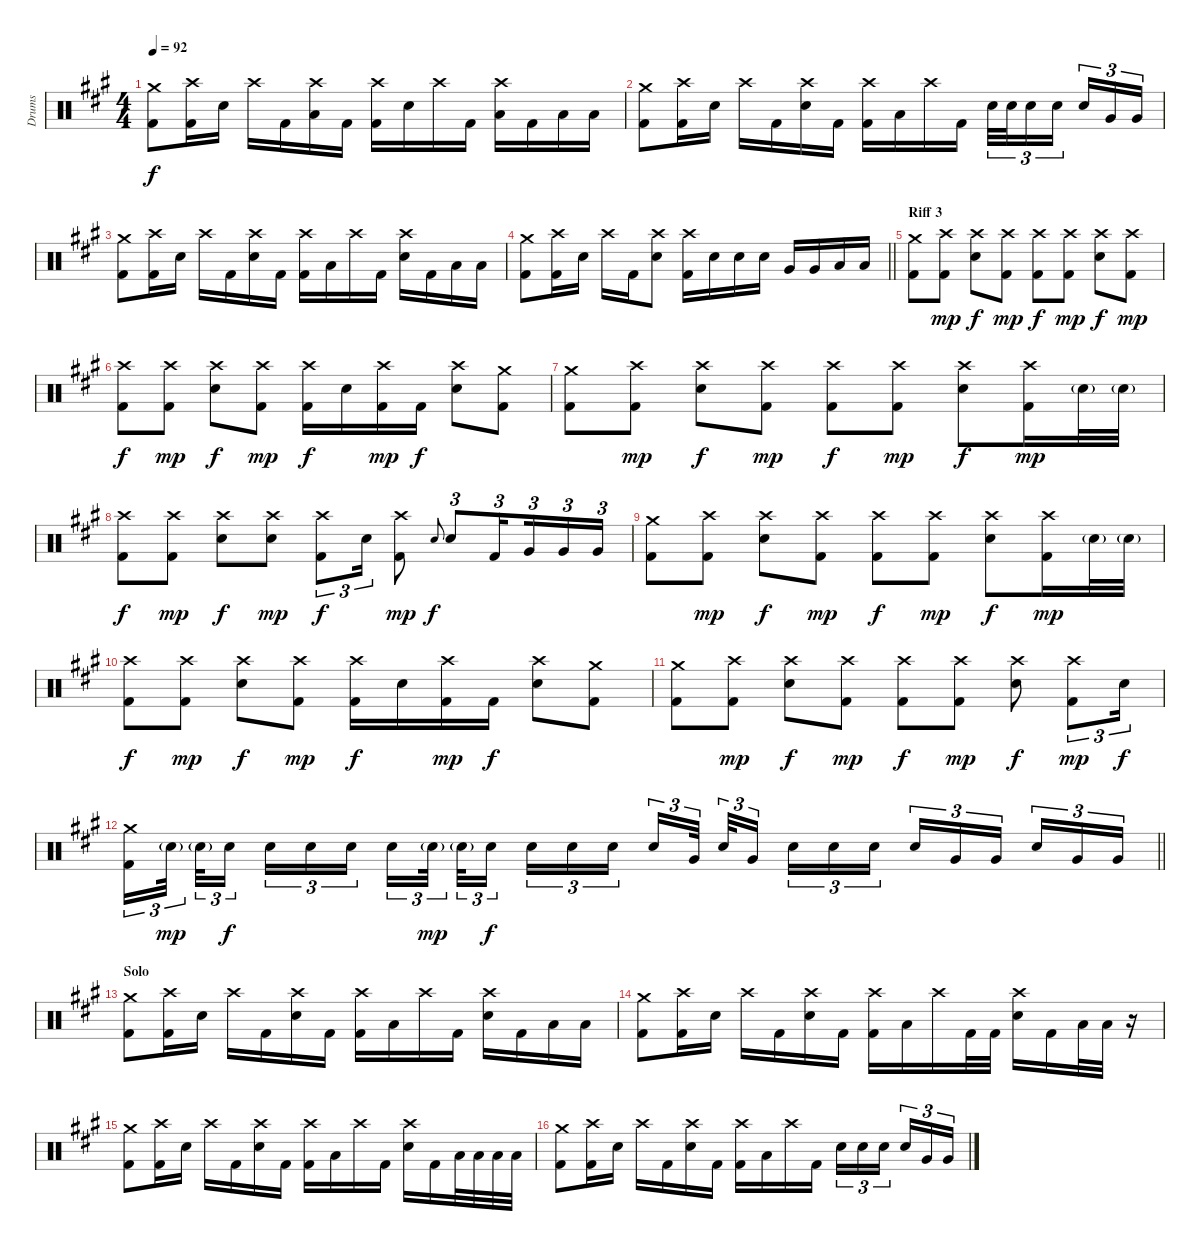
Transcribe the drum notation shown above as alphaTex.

\track ("Drums" "Drums") {instrument percussion}
\staff {score}
\articulation defaults
\ts (4 4)
\tempo 92
\clef neutral
\ks a
("Crash medium (hit)" "Kick (hit) 2").8{dy f} ("Kick (hit) 2" "Crash high (hit)").16 "Electric Snare (hit)".16 "Crash high (hit)".16 "Kick (hit) 2".16 ("Low Tom (hit)" "Crash high (hit)").16 "Kick (hit) 2".16 ("Crash high (hit)" "Kick (hit) 2").16 "Electric Snare (hit)".16 "Crash high (hit)".16 "Kick (hit) 2".16 ("Low Tom (hit)" "Crash high (hit)").16 "Kick (hit) 2".16 "Low Tom (hit)".16 "Low Floor Tom (hit)".16 |
("Crash medium (hit)" "Kick (hit) 2").8 ("Kick (hit) 2" "Crash high (hit)").16 "Electric Snare (hit)".16 "Crash high (hit)".16 "Kick (hit) 2".16 ("Electric Snare (hit)" "Crash high (hit)").16 "Kick (hit) 2".16 ("Crash high (hit)" "Kick (hit) 2").16 "Low Tom (hit)".16 "Crash high (hit)".16 "Kick (hit) 2".16 "Electric Snare (hit)".32{tu (3 2)} "Electric Snare (hit)".32{tu (3 2)} "Electric Snare (hit)".16{tu (3 2)} "Electric Snare (hit)".16{tu (3 2) beam splitsecondary} "Electric Snare (hit)".16{tu (3 2)} "Very Low Tom (hit)".16{tu (3 2)} "Very Low Tom (hit)".16{tu (3 2)} |
("Crash medium (hit)" "Kick (hit) 2").8 ("Kick (hit) 2" "Crash high (hit)").16 "Electric Snare (hit)".16 "Crash high (hit)".16 "Kick (hit) 2".16 ("Electric Snare (hit)" "Crash high (hit)").16 "Kick (hit) 2".16 ("Crash high (hit)" "Kick (hit) 2").16 "Low Tom (hit)".16 "Crash high (hit)".16 "Kick (hit) 2".16 ("Electric Snare (hit)" "Crash high (hit)").16 "Kick (hit) 2".16 "Low Floor Tom (hit)".16 "Low Floor Tom (hit)".16 |
\barLineRight lightlight
("Crash medium (hit)" "Kick (hit) 2").8 ("Kick (hit) 2" "Crash high (hit)").16 "Electric Snare (hit)".16 "Crash high (hit)".16 "Kick (hit) 2".16 ("Electric Snare (hit)" "Crash high (hit)").8 ("Kick (hit) 2" "Crash high (hit)").16 "Electric Snare (hit)".16 "Electric Snare (hit)".16 "Electric Snare (hit)".16 "Very Low Tom (hit)".16 "Very Low Tom (hit)".16 "Low Floor Tom (hit)".16 "Low Floor Tom (hit)".16 |
\section ("" "Riff 3")
("Crash medium (hit)" "Kick (hit) 2").8 ("Crash high (hit)" "Kick (hit) 2").8{dy mp} ("Crash high (hit)" "Electric Snare (hit)").8{dy f} ("Crash high (hit)" "Kick (hit) 2").8{dy mp} ("Crash high (hit)" "Kick (hit) 2").8{dy f} ("Crash high (hit)" "Kick (hit) 2").8{dy mp} ("Crash high (hit)" "Electric Snare (hit)").8{dy f} ("Crash high (hit)" "Kick (hit) 2").8{dy mp} |
("Crash high (hit)" "Kick (hit) 2").8{dy f} ("Crash high (hit)" "Kick (hit) 2").8{dy mp} ("Crash high (hit)" "Electric Snare (hit)").8{dy f} ("Crash high (hit)" "Kick (hit) 2").8{dy mp} ("Crash high (hit)" "Kick (hit) 2").16{dy f} "Electric Snare (hit)".16 ("Kick (hit) 2" "Crash high (hit)").16{dy mp} "Kick (hit) 2".16{dy f} ("Electric Snare (hit)" "Crash high (hit)").8 ("Kick (hit) 2" "Crash medium (hit)").8 |
("Crash medium (hit)" "Kick (hit) 2").8 ("Crash high (hit)" "Kick (hit) 2").8{dy mp} ("Crash high (hit)" "Electric Snare (hit)").8{dy f} ("Crash high (hit)" "Kick (hit) 2").8{dy mp} ("Crash high (hit)" "Kick (hit) 2").8{dy f} ("Crash high (hit)" "Kick (hit) 2").8{dy mp} ("Crash high (hit)" "Electric Snare (hit)").8{dy f} ("Crash high (hit)" "Kick (hit) 2").16{dy mp} "Electric Snare (hit)"{g}.32 "Electric Snare (hit)"{g}.32 |
("Crash high (hit)" "Kick (hit) 2").8{dy f} ("Crash high (hit)" "Kick (hit) 2").8{dy mp} ("Crash high (hit)" "Electric Snare (hit)").8{dy f} ("Electric Snare (hit)" "Crash high (hit)").8{dy mp} ("Kick (hit) 2" "Crash high (hit)").8{tu (3 2) dy f} "Electric Snare (hit)".16{tu (3 2)} ("Kick (hit) 2" "Crash high (hit)").8{dy mp} "Electric Snare (hit)".8{gr onbeat dy f} "Electric Snare (hit)".8{tu (3 2)} "Kick (hit) 2".16{tu (3 2) beam splitsecondary} "Very Low Tom (hit)".16{tu (3 2)} "Very Low Tom (hit)".16{tu (3 2)} "Very Low Tom (hit)".16{tu (3 2)} |
("Crash medium (hit)" "Kick (hit) 2").8 ("Crash high (hit)" "Kick (hit) 2").8{dy mp} ("Crash high (hit)" "Electric Snare (hit)").8{dy f} ("Crash high (hit)" "Kick (hit) 2").8{dy mp} ("Crash high (hit)" "Kick (hit) 2").8{dy f} ("Crash high (hit)" "Kick (hit) 2").8{dy mp} ("Crash high (hit)" "Electric Snare (hit)").8{dy f} ("Crash high (hit)" "Kick (hit) 2").16{dy mp} "Electric Snare (hit)"{g}.32 "Electric Snare (hit)"{g}.32 |
("Crash high (hit)" "Kick (hit) 2").8{dy f} ("Crash high (hit)" "Kick (hit) 2").8{dy mp} ("Crash high (hit)" "Electric Snare (hit)").8{dy f} ("Crash high (hit)" "Kick (hit) 2").8{dy mp} ("Crash high (hit)" "Kick (hit) 2").16{dy f} "Electric Snare (hit)".16 ("Kick (hit) 2" "Crash high (hit)").16{dy mp} "Kick (hit) 2".16{dy f} ("Electric Snare (hit)" "Crash high (hit)").8 ("Kick (hit) 2" "Crash medium (hit)").8 |
("Crash medium (hit)" "Kick (hit) 2").8 ("Crash high (hit)" "Kick (hit) 2").8{dy mp} ("Crash high (hit)" "Electric Snare (hit)").8{dy f} ("Crash high (hit)" "Kick (hit) 2").8{dy mp} ("Crash high (hit)" "Kick (hit) 2").8{dy f} ("Crash high (hit)" "Kick (hit) 2").8{dy mp} ("Crash high (hit)" "Electric Snare (hit)").8{dy f} ("Crash high (hit)" "Kick (hit) 2").8{tu (3 2) dy mp} "Electric Snare (hit)".16{tu (3 2) dy f} |
\barLineRight lightlight
("Crash medium (hit)" "Kick (hit) 2").16{tu (3 2)} "Electric Snare (hit)"{g}.32{tu (3 2) dy mp beam splitsecondary} "Electric Snare (hit)"{g}.32{tu (3 2)} "Electric Snare (hit)".16{tu (3 2) dy f beam splitsecondary} "Electric Snare (hit)".16{tu (3 2)} "Electric Snare (hit)".16{tu (3 2)} "Electric Snare (hit)".16{tu (3 2)} "Electric Snare (hit)".16{tu (3 2)} "Electric Snare (hit)"{g}.32{tu (3 2) dy mp beam splitsecondary} "Electric Snare (hit)"{g}.32{tu (3 2)} "Electric Snare (hit)".16{tu (3 2) dy f beam splitsecondary} "Electric Snare (hit)".16{tu (3 2)} "Electric Snare (hit)".16{tu (3 2)} "Electric Snare (hit)".16{tu (3 2)} "Electric Snare (hit)".16{tu (3 2)} "Very Low Tom (hit)".32{tu (3 2) beam splitsecondary} "Electric Snare (hit)".32{tu (3 2)} "Very Low Tom (hit)".16{tu (3 2) beam splitsecondary} "Electric Snare (hit)".16{tu (3 2)} "Electric Snare (hit)".16{tu (3 2)} "Electric Snare (hit)".16{tu (3 2)} "Electric Snare (hit)".16{tu (3 2)} "Very Low Tom (hit)".16{tu (3 2)} "Very Low Tom (hit)".16{tu (3 2) beam splitsecondary} "Electric Snare (hit)".16{tu (3 2)} "Very Low Tom (hit)".16{tu (3 2)} "Very Low Tom (hit)".16{tu (3 2)} |
\section ("" "Solo")
("Crash medium (hit)" "Kick (hit) 2").8 ("Kick (hit) 2" "Crash high (hit)").16 "Electric Snare (hit)".16 "Crash high (hit)".16 "Kick (hit) 2".16 ("Electric Snare (hit)" "Crash high (hit)").16 "Kick (hit) 2".16 ("Crash high (hit)" "Kick (hit) 2").16 "Low Tom (hit)".16 "Crash high (hit)".16 "Kick (hit) 2".16 ("Electric Snare (hit)" "Crash high (hit)").16 "Kick (hit) 2".16 "Low Tom (hit)".16 "Low Floor Tom (hit)".16 |
("Crash medium (hit)" "Kick (hit) 2").8 ("Kick (hit) 2" "Crash high (hit)").16 "Electric Snare (hit)".16 "Crash high (hit)".16 "Kick (hit) 2".16 ("Electric Snare (hit)" "Crash high (hit)").16 "Kick (hit) 2".16 ("Crash high (hit)" "Kick (hit) 2").16 "Low Tom (hit)".16 "Crash high (hit)".16 "Kick (hit) 2".32 "Kick (hit) 2".32 ("Electric Snare (hit)" "Crash high (hit)").16 "Kick (hit) 2".16 "Low Floor Tom (hit)".32 "Low Floor Tom (hit)".32 r.16 |
("Crash medium (hit)" "Kick (hit) 2").8 ("Kick (hit) 2" "Crash high (hit)").16 "Electric Snare (hit)".16 "Crash high (hit)".16 "Kick (hit) 2".16 ("Electric Snare (hit)" "Crash high (hit)").16 "Kick (hit) 2".16 ("Crash high (hit)" "Kick (hit) 2").16 "Low Tom (hit)".16 "Crash high (hit)".16 "Kick (hit) 2".16 ("Electric Snare (hit)" "Crash high (hit)").16 "Kick (hit) 2".16 "Low Floor Tom (hit)".32 "Low Floor Tom (hit)".32 "Low Floor Tom (hit)".32 "Low Floor Tom (hit)".32 |
("Crash medium (hit)" "Kick (hit) 2").8 ("Kick (hit) 2" "Crash high (hit)").16 "Electric Snare (hit)".16 "Crash high (hit)".16 "Kick (hit) 2".16 ("Electric Snare (hit)" "Crash high (hit)").16 "Kick (hit) 2".16 ("Crash high (hit)" "Kick (hit) 2").16 "Low Tom (hit)".16 "Crash high (hit)".16 "Kick (hit) 2".16 "Electric Snare (hit)".16{tu (3 2)} "Electric Snare (hit)".16{tu (3 2)} "Electric Snare (hit)".16{tu (3 2) beam splitsecondary} "Electric Snare (hit)".16{tu (3 2)} "Very Low Tom (hit)".16{tu (3 2)} "Very Low Tom (hit)".16{tu (3 2)}
